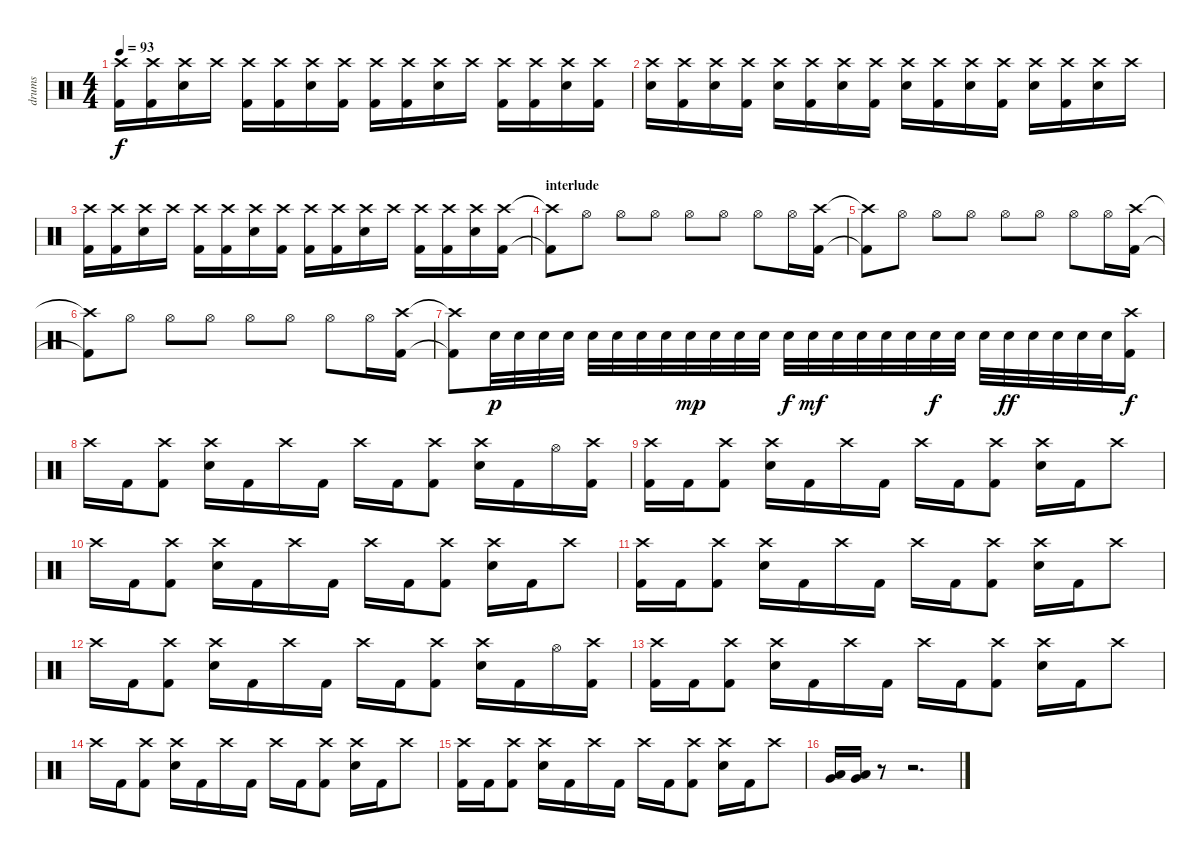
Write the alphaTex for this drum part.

\track ("drums" "drums") {instrument percussion}
\staff {score}
\articulation defaults
\ts (4 4)
\tempo 93
\clef neutral
\ks c
("Crash high (hit)" "Kick (hit) 2").16{dy f} ("Crash high (hit)" "Kick (hit) 2").16 ("Crash high (hit)" "Electric Snare (hit)").16 "Crash high (hit)".16 ("Crash high (hit)" "Kick (hit) 2").16 ("Crash high (hit)" "Kick (hit) 2").16 ("Crash high (hit)" "Electric Snare (hit)").16 ("Crash high (hit)" "Kick (hit) 2").16 ("Crash high (hit)" "Kick (hit) 2").16 ("Crash high (hit)" "Kick (hit) 2").16 ("Crash high (hit)" "Electric Snare (hit)").16 "Crash high (hit)".16 ("Crash high (hit)" "Kick (hit) 2").16 ("Crash high (hit)" "Kick (hit) 2").16 ("Crash high (hit)" "Electric Snare (hit)").16 ("Crash high (hit)" "Kick (hit) 2").16 |
("Crash high (hit)" "Electric Snare (hit)").16 ("Crash high (hit)" "Kick (hit) 2").16 ("Crash high (hit)" "Electric Snare (hit)").16 ("Crash high (hit)" "Kick (hit) 2").16 ("Crash high (hit)" "Electric Snare (hit)").16 ("Crash high (hit)" "Kick (hit) 2").16 ("Crash high (hit)" "Electric Snare (hit)").16 ("Crash high (hit)" "Kick (hit) 2").16 ("Crash high (hit)" "Electric Snare (hit)").16 ("Crash high (hit)" "Kick (hit) 2").16 ("Crash high (hit)" "Electric Snare (hit)").16 ("Crash high (hit)" "Kick (hit) 2").16 ("Crash high (hit)" "Electric Snare (hit)").16 ("Crash high (hit)" "Kick (hit) 2").16 ("Crash high (hit)" "Electric Snare (hit)").16 "Crash high (hit)".16 |
("Crash high (hit)" "Kick (hit) 2").16 ("Crash high (hit)" "Kick (hit) 2").16 ("Crash high (hit)" "Electric Snare (hit)").16 "Crash high (hit)".16 ("Crash high (hit)" "Kick (hit) 2").16 ("Crash high (hit)" "Kick (hit) 2").16 ("Crash high (hit)" "Electric Snare (hit)").16 ("Crash high (hit)" "Kick (hit) 2").16 ("Crash high (hit)" "Kick (hit) 2").16 ("Crash high (hit)" "Kick (hit) 2").16 ("Crash high (hit)" "Electric Snare (hit)").16 "Crash high (hit)".16 ("Crash high (hit)" "Kick (hit) 2").16 ("Crash high (hit)" "Kick (hit) 2").16 ("Crash high (hit)" "Electric Snare (hit)").16 ("Crash high (hit)" "Kick (hit) 2").16 |
\section ("" "interlude")
("Crash high (hit)"{t} "Kick (hit) 2"{t}).8 "Hi-Hat (open)".8 "Hi-Hat (open)".8 "Hi-Hat (open)".8 "Hi-Hat (open)".8 "Hi-Hat (open)".8 "Hi-Hat (open)".8 "Hi-Hat (open)".16 ("Crash high (hit)" "Kick (hit) 2").16 |
("Crash high (hit)"{t} "Kick (hit) 2"{t}).8 "Hi-Hat (open)".8 "Hi-Hat (open)".8 "Hi-Hat (open)".8 "Hi-Hat (open)".8 "Hi-Hat (open)".8 "Hi-Hat (open)".8 "Hi-Hat (open)".16 ("Crash high (hit)" "Kick (hit) 2").16 |
("Crash high (hit)"{t} "Kick (hit) 2"{t}).8 "Hi-Hat (open)".8 "Hi-Hat (open)".8 "Hi-Hat (open)".8 "Hi-Hat (open)".8 "Hi-Hat (open)".8 "Hi-Hat (open)".8 "Hi-Hat (open)".16 ("Crash high (hit)" "Kick (hit) 2").16 |
("Crash high (hit)"{t} "Kick (hit) 2"{t}).8 "Electric Snare (hit)".32{dy p} "Electric Snare (hit)".32 "Electric Snare (hit)".32 "Electric Snare (hit)".32 "Electric Snare (hit)".32 "Electric Snare (hit)".32 "Electric Snare (hit)".32 "Electric Snare (hit)".32 "Electric Snare (hit)".32{dy mp} "Electric Snare (hit)".32 "Electric Snare (hit)".32 "Electric Snare (hit)".32 "Electric Snare (hit)".32{dy f} "Electric Snare (hit)".32{dy mf} "Electric Snare (hit)".32 "Electric Snare (hit)".32 "Electric Snare (hit)".32 "Electric Snare (hit)".32 "Electric Snare (hit)".32{dy f} "Electric Snare (hit)".32 "Electric Snare (hit)".32 "Electric Snare (hit)".32{dy ff} "Electric Snare (hit)".32 "Electric Snare (hit)".32 "Electric Snare (hit)".32 "Electric Snare (hit)".32 ("Crash high (hit)" "Kick (hit) 2").16{dy f} |
"Crash high (hit)".16 "Kick (hit) 2".16 ("Crash high (hit)" "Kick (hit) 2").8 ("Crash high (hit)" "Electric Snare (hit)").16 "Kick (hit) 2".16 "Crash high (hit)".16 "Kick (hit) 2".16 "Crash high (hit)".16 "Kick (hit) 2".16 ("Crash high (hit)" "Kick (hit) 2").8 ("Crash high (hit)" "Electric Snare (hit)").16 "Kick (hit) 2".16 "Hi-Hat (open)".16 ("Crash high (hit)" "Kick (hit) 2").16 |
("Crash high (hit)" "Kick (hit) 2").16 "Kick (hit) 2".16 ("Crash high (hit)" "Kick (hit) 2").8 ("Crash high (hit)" "Electric Snare (hit)").16 "Kick (hit) 2".16 "Crash high (hit)".16 "Kick (hit) 2".16 "Crash high (hit)".16 "Kick (hit) 2".16 ("Crash high (hit)" "Kick (hit) 2").8 ("Crash high (hit)" "Electric Snare (hit)").16 "Kick (hit) 2".16 "Crash high (hit)".8 |
"Crash high (hit)".16 "Kick (hit) 2".16 ("Crash high (hit)" "Kick (hit) 2").8 ("Crash high (hit)" "Electric Snare (hit)").16 "Kick (hit) 2".16 "Crash high (hit)".16 "Kick (hit) 2".16 "Crash high (hit)".16 "Kick (hit) 2".16 ("Crash high (hit)" "Kick (hit) 2").8 ("Crash high (hit)" "Electric Snare (hit)").16 "Kick (hit) 2".16 "Crash high (hit)".8 |
("Crash high (hit)" "Kick (hit) 2").16 "Kick (hit) 2".16 ("Crash high (hit)" "Kick (hit) 2").8 ("Crash high (hit)" "Electric Snare (hit)").16 "Kick (hit) 2".16 "Crash high (hit)".16 "Kick (hit) 2".16 "Crash high (hit)".16 "Kick (hit) 2".16 ("Crash high (hit)" "Kick (hit) 2").8 ("Crash high (hit)" "Electric Snare (hit)").16 "Kick (hit) 2".16 "Crash high (hit)".8 |
"Crash high (hit)".16 "Kick (hit) 2".16 ("Crash high (hit)" "Kick (hit) 2").8 ("Crash high (hit)" "Electric Snare (hit)").16 "Kick (hit) 2".16 "Crash high (hit)".16 "Kick (hit) 2".16 "Crash high (hit)".16 "Kick (hit) 2".16 ("Crash high (hit)" "Kick (hit) 2").8 ("Crash high (hit)" "Electric Snare (hit)").16 "Kick (hit) 2".16 "Hi-Hat (open)".16 ("Crash high (hit)" "Kick (hit) 2").16 |
("Crash high (hit)" "Kick (hit) 2").16 "Kick (hit) 2".16 ("Crash high (hit)" "Kick (hit) 2").8 ("Crash high (hit)" "Electric Snare (hit)").16 "Kick (hit) 2".16 "Crash high (hit)".16 "Kick (hit) 2".16 "Crash high (hit)".16 "Kick (hit) 2".16 ("Crash high (hit)" "Kick (hit) 2").8 ("Crash high (hit)" "Electric Snare (hit)").16 "Kick (hit) 2".16 "Crash high (hit)".8 |
"Crash high (hit)".16 "Kick (hit) 2".16 ("Crash high (hit)" "Kick (hit) 2").8 ("Crash high (hit)" "Electric Snare (hit)").16 "Kick (hit) 2".16 "Crash high (hit)".16 "Kick (hit) 2".16 "Crash high (hit)".16 "Kick (hit) 2".16 ("Crash high (hit)" "Kick (hit) 2").8 ("Crash high (hit)" "Electric Snare (hit)").16 "Kick (hit) 2".16 "Crash high (hit)".8 |
("Crash high (hit)" "Kick (hit) 2").16 "Kick (hit) 2".16 ("Crash high (hit)" "Kick (hit) 2").8 ("Crash high (hit)" "Electric Snare (hit)").16 "Kick (hit) 2".16 "Crash high (hit)".16 "Kick (hit) 2".16 "Crash high (hit)".16 "Kick (hit) 2".16 ("Crash high (hit)" "Kick (hit) 2").8 ("Crash high (hit)" "Electric Snare (hit)").16 "Kick (hit) 2".16 "Crash high (hit)".8 |
("Very Low Tom (hit)" "Low Tom (hit)").16 ("Very Low Tom (hit)" "Low Tom (hit)").16 r.8 r.2{d}
